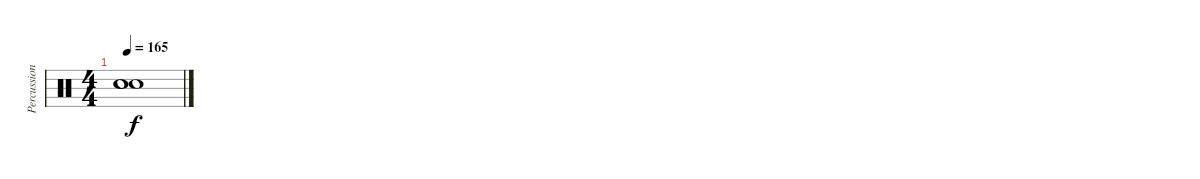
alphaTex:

\track ("Percussion" "Percussion") {instrument percussion}
\staff {score}
\articulation defaults
\ts (4 4)
\tempo 165
\clef neutral
\ks c
("Snare (hit)"{t} "Snare (hit)"{t} "Snare (hit)"{t}).1{dy f}
